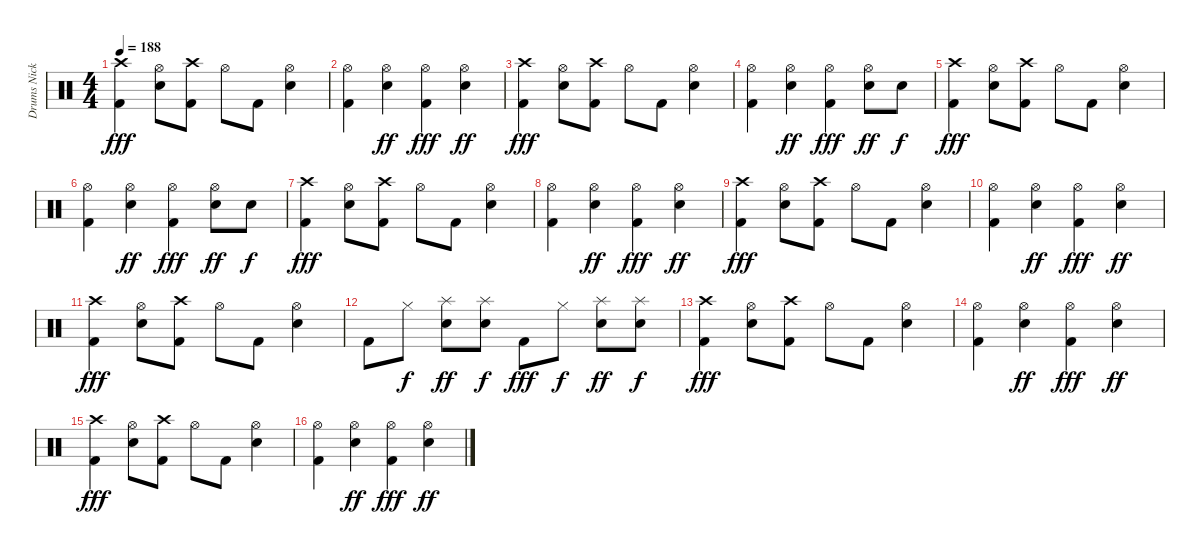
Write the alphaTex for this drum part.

\track ("Drums Nicko McBrain" "Drums Nick") {instrument percussion}
\staff {score}
\articulation defaults
\ts (4 4)
\tempo 188
\clef neutral
\ks c
("Crash high (hit)" "Kick (hit) 2").4{dy fff} ("Hi-Hat (open)" "Electric Snare (hit)").8 ("Crash high (hit)" "Kick (hit) 2").8 "Hi-Hat (open)".8 "Kick (hit) 2".8 ("Hi-Hat (open)" "Electric Snare (hit)").4 |
("Hi-Hat (open)" "Kick (hit) 2").4 ("Hi-Hat (open)" "Electric Snare (hit)").4{dy ff} ("Hi-Hat (open)" "Kick (hit) 2").4{dy fff} ("Hi-Hat (open)" "Electric Snare (hit)").4{dy ff} |
("Crash high (hit)" "Kick (hit) 2").4{dy fff} ("Hi-Hat (open)" "Electric Snare (hit)").8 ("Crash high (hit)" "Kick (hit) 2").8 "Hi-Hat (open)".8 "Kick (hit) 2".8 ("Hi-Hat (open)" "Electric Snare (hit)").4 |
("Hi-Hat (open)" "Kick (hit) 2").4 ("Hi-Hat (open)" "Electric Snare (hit)").4{dy ff} ("Hi-Hat (open)" "Kick (hit) 2").4{dy fff} ("Hi-Hat (open)" "Electric Snare (hit)").8{dy ff} "Electric Snare (hit)".8{dy f} |
("Crash high (hit)" "Kick (hit) 2").4{dy fff} ("Hi-Hat (open)" "Electric Snare (hit)").8 ("Crash high (hit)" "Kick (hit) 2").8 "Hi-Hat (open)".8 "Kick (hit) 2".8 ("Hi-Hat (open)" "Electric Snare (hit)").4 |
("Hi-Hat (open)" "Kick (hit) 2").4 ("Hi-Hat (open)" "Electric Snare (hit)").4{dy ff} ("Hi-Hat (open)" "Kick (hit) 2").4{dy fff} ("Hi-Hat (open)" "Electric Snare (hit)").8{dy ff} "Electric Snare (hit)".8{dy f} |
("Crash high (hit)" "Kick (hit) 2").4{dy fff} ("Hi-Hat (open)" "Electric Snare (hit)").8 ("Crash high (hit)" "Kick (hit) 2").8 "Hi-Hat (open)".8 "Kick (hit) 2".8 ("Hi-Hat (open)" "Electric Snare (hit)").4 |
("Hi-Hat (open)" "Kick (hit) 2").4 ("Hi-Hat (open)" "Electric Snare (hit)").4{dy ff} ("Hi-Hat (open)" "Kick (hit) 2").4{dy fff} ("Hi-Hat (open)" "Electric Snare (hit)").4{dy ff} |
("Crash high (hit)" "Kick (hit) 2").4{dy fff} ("Hi-Hat (open)" "Electric Snare (hit)").8 ("Crash high (hit)" "Kick (hit) 2").8 "Hi-Hat (open)".8 "Kick (hit) 2".8 ("Hi-Hat (open)" "Electric Snare (hit)").4 |
("Hi-Hat (open)" "Kick (hit) 2").4 ("Hi-Hat (open)" "Electric Snare (hit)").4{dy ff} ("Hi-Hat (open)" "Kick (hit) 2").4{dy fff} ("Hi-Hat (open)" "Electric Snare (hit)").4{dy ff} |
("Crash high (hit)" "Kick (hit) 2").4{dy fff} ("Hi-Hat (open)" "Electric Snare (hit)").8 ("Crash high (hit)" "Kick (hit) 2").8 "Hi-Hat (open)".8 "Kick (hit) 2".8 ("Hi-Hat (open)" "Electric Snare (hit)").4 |
"Kick (hit) 2".8 "Hi-Hat (closed)".8{dy f} ("Splash (hit)" "Electric Snare (hit)").8{dy ff} ("Splash (hit)" "Electric Snare (hit)").8{dy f} "Kick (hit) 2".8{dy fff} "Hi-Hat (closed)".8{dy f} ("Splash (hit)" "Electric Snare (hit)").8{dy ff} ("Splash (hit)" "Electric Snare (hit)").8{dy f} |
("Crash high (hit)" "Kick (hit) 2").4{dy fff} ("Hi-Hat (open)" "Electric Snare (hit)").8 ("Crash high (hit)" "Kick (hit) 2").8 "Hi-Hat (open)".8 "Kick (hit) 2".8 ("Hi-Hat (open)" "Electric Snare (hit)").4 |
("Hi-Hat (open)" "Kick (hit) 2").4 ("Hi-Hat (open)" "Electric Snare (hit)").4{dy ff} ("Hi-Hat (open)" "Kick (hit) 2").4{dy fff} ("Hi-Hat (open)" "Electric Snare (hit)").4{dy ff} |
("Crash high (hit)" "Kick (hit) 2").4{dy fff} ("Hi-Hat (open)" "Electric Snare (hit)").8 ("Crash high (hit)" "Kick (hit) 2").8 "Hi-Hat (open)".8 "Kick (hit) 2".8 ("Hi-Hat (open)" "Electric Snare (hit)").4 |
("Hi-Hat (open)" "Kick (hit) 2").4 ("Hi-Hat (open)" "Electric Snare (hit)").4{dy ff} ("Hi-Hat (open)" "Kick (hit) 2").4{dy fff} ("Hi-Hat (open)" "Electric Snare (hit)").4{dy ff}
